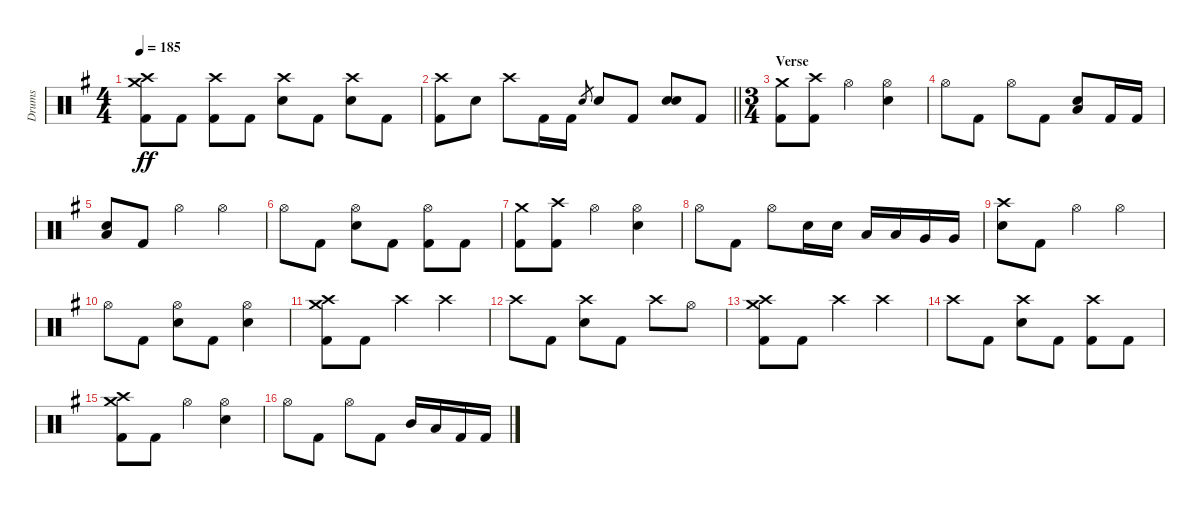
\track ("Drums" "Drums") {instrument percussion}
\staff {score}
\articulation defaults
\ts (4 4)
\tempo 185
\clef neutral
\ks g
("Crash medium (hit)" "Crash high (hit)" "Kick (hit) 2").8{dy ff} "Kick (hit) 2".8 ("Crash high (hit)" "Kick (hit) 2").8 "Kick (hit) 2".8 ("Crash high (hit)" "Electric Snare (hit)").8 "Kick (hit) 2".8 ("Crash high (hit)" "Electric Snare (hit)").8 "Kick (hit) 2".8 |
\barLineRight lightlight
("Crash high (hit)" "Kick (hit) 2").8 "Electric Snare (hit)".8 "Crash high (hit)".8 "Kick (hit) 2".16 "Kick (hit) 2".16 "Electric Snare (hit)".8{gr} "Electric Snare (hit)".8 "Kick (hit) 2".8 ("Electric Snare (hit)" "Electric Snare (hit)").8{bu 60} "Kick (hit) 2".8 |
\ts (3 4)
\section ("" "Verse")
("Crash medium (hit)" "Kick (hit) 2").8 ("Crash high (hit)" "Kick (hit) 2").8 "Hi-Hat (open)".4 ("Hi-Hat (open)" "Electric Snare (hit)").4 |
"Hi-Hat (open)".8 "Kick (hit) 2".8 "Hi-Hat (open)".8 "Kick (hit) 2".8 ("Low Tom (hit)" "Electric Snare (hit)").8{bu 60} "Kick (hit) 2".16 "Kick (hit) 2".16 |
("Low Tom (hit)" "Electric Snare (hit)").8{bu 60} "Kick (hit) 2".8 "Hi-Hat (open)".4 "Hi-Hat (open)".4 |
"Hi-Hat (open)".8 "Kick (hit) 2".8 ("Hi-Hat (open)" "Electric Snare (hit)").8 "Kick (hit) 2".8 ("Hi-Hat (open)" "Kick (hit) 2").8 "Kick (hit) 2".8 |
("Crash medium (hit)" "Kick (hit) 2").8 ("Crash high (hit)" "Kick (hit) 2").8 "Hi-Hat (open)".4 ("Hi-Hat (open)" "Electric Snare (hit)").4 |
"Hi-Hat (open)".8 "Kick (hit) 2".8 "Hi-Hat (open)".8 "Electric Snare (hit)".16 "Electric Snare (hit)".16 "Low Tom (hit)".16 "Low Tom (hit)".16 "Very Low Tom (hit)".16 "Very Low Tom (hit)".16 |
("Crash high (hit)" "Electric Snare (hit)").8 "Kick (hit) 2".8 "Hi-Hat (open)".4 "Hi-Hat (open)".4 |
"Hi-Hat (open)".8 "Kick (hit) 2".8 ("Hi-Hat (open)" "Electric Snare (hit)").8 "Kick (hit) 2".8 ("Hi-Hat (open)" "Electric Snare (hit)").4 |
("Crash medium (hit)" "Crash high (hit)" "Kick (hit) 2").8 "Kick (hit) 2".8 "Crash high (hit)".4 "Crash high (hit)".4 |
"Crash high (hit)".8 "Kick (hit) 2".8 ("Crash high (hit)" "Electric Snare (hit)").8 "Kick (hit) 2".8 "Crash high (hit)".8 "Hi-Hat (open)".8 |
("Crash medium (hit)" "Crash high (hit)" "Kick (hit) 2").8 "Kick (hit) 2".8 "Crash high (hit)".4 "Crash high (hit)".4 |
"Crash high (hit)".8 "Kick (hit) 2".8 ("Crash high (hit)" "Electric Snare (hit)").8 "Kick (hit) 2".8 ("Crash high (hit)" "Kick (hit) 2").8 "Kick (hit) 2".8 |
("Crash medium (hit)" "Crash high (hit)" "Kick (hit) 2").8 "Kick (hit) 2".8 "Hi-Hat (open)".4 ("Hi-Hat (open)" "Electric Snare (hit)").4 |
"Hi-Hat (open)".8 "Kick (hit) 2".8 "Hi-Hat (open)".8 "Kick (hit) 2".8 "Mid Tom (hit)".16 "Low Tom (hit)".16 "Kick (hit) 2".16 "Kick (hit) 2".16
